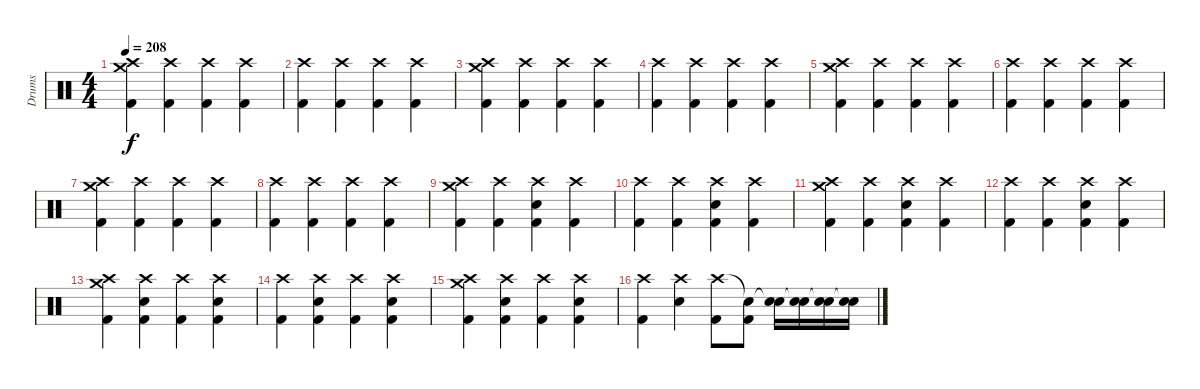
\track ("Drums" "Drums") {instrument percussion}
\staff {score}
\articulation defaults
\ts (4 4)
\tempo 208
\clef neutral
\ks c
("Crash high (hit)" "Crash medium (hit)" "Kick (hit) 2").4{dy f} ("Crash high (hit)" "Kick (hit) 2").4 ("Crash high (hit)" "Kick (hit) 2").4 ("Crash high (hit)" "Kick (hit) 2").4 |
("Crash high (hit)" "Kick (hit) 2").4 ("Crash high (hit)" "Kick (hit) 2").4 ("Crash high (hit)" "Kick (hit) 2").4 ("Crash high (hit)" "Kick (hit) 2").4 |
("Crash high (hit)" "Crash medium (hit)" "Kick (hit) 2").4 ("Crash high (hit)" "Kick (hit) 2").4 ("Crash high (hit)" "Kick (hit) 2").4 ("Crash high (hit)" "Kick (hit) 2").4 |
("Crash high (hit)" "Kick (hit) 2").4 ("Crash high (hit)" "Kick (hit) 2").4 ("Crash high (hit)" "Kick (hit) 2").4 ("Crash high (hit)" "Kick (hit) 2").4 |
("Crash high (hit)" "Crash medium (hit)" "Kick (hit) 2").4 ("Crash high (hit)" "Kick (hit) 2").4 ("Crash high (hit)" "Kick (hit) 2").4 ("Crash high (hit)" "Kick (hit) 2").4 |
("Crash high (hit)" "Kick (hit) 2").4 ("Crash high (hit)" "Kick (hit) 2").4 ("Crash high (hit)" "Kick (hit) 2").4 ("Crash high (hit)" "Kick (hit) 2").4 |
("Crash high (hit)" "Crash medium (hit)" "Kick (hit) 2").4 ("Crash high (hit)" "Kick (hit) 2").4 ("Crash high (hit)" "Kick (hit) 2").4 ("Crash high (hit)" "Kick (hit) 2").4 |
("Crash high (hit)" "Kick (hit) 2").4 ("Crash high (hit)" "Kick (hit) 2").4 ("Crash high (hit)" "Kick (hit) 2").4 ("Crash high (hit)" "Kick (hit) 2").4 |
("Crash high (hit)" "Crash medium (hit)" "Kick (hit) 2").4 ("Crash high (hit)" "Kick (hit) 2").4 ("Crash high (hit)" "Electric Snare (hit)" "Kick (hit) 2").4 ("Crash high (hit)" "Kick (hit) 2").4 |
("Crash high (hit)" "Kick (hit) 2").4 ("Crash high (hit)" "Kick (hit) 2").4 ("Crash high (hit)" "Electric Snare (hit)" "Kick (hit) 2").4 ("Crash high (hit)" "Kick (hit) 2").4 |
("Crash high (hit)" "Crash medium (hit)" "Kick (hit) 2").4 ("Crash high (hit)" "Kick (hit) 2").4 ("Crash high (hit)" "Electric Snare (hit)" "Kick (hit) 2").4 ("Crash high (hit)" "Kick (hit) 2").4 |
("Crash high (hit)" "Kick (hit) 2").4 ("Crash high (hit)" "Kick (hit) 2").4 ("Crash high (hit)" "Electric Snare (hit)" "Kick (hit) 2").4 ("Crash high (hit)" "Kick (hit) 2").4 |
("Crash high (hit)" "Crash medium (hit)" "Kick (hit) 2").4 ("Crash high (hit)" "Electric Snare (hit)" "Kick (hit) 2").4 ("Crash high (hit)" "Kick (hit) 2").4 ("Crash high (hit)" "Electric Snare (hit)" "Kick (hit) 2").4 |
("Crash high (hit)" "Kick (hit) 2").4 ("Crash high (hit)" "Electric Snare (hit)" "Kick (hit) 2").4 ("Crash high (hit)" "Kick (hit) 2").4 ("Crash high (hit)" "Electric Snare (hit)" "Kick (hit) 2").4 |
("Crash high (hit)" "Crash medium (hit)" "Kick (hit) 2").4 ("Crash high (hit)" "Electric Snare (hit)" "Kick (hit) 2").4 ("Crash high (hit)" "Kick (hit) 2").4 ("Crash high (hit)" "Electric Snare (hit)" "Kick (hit) 2").4 |
("Crash high (hit)" "Kick (hit) 2").4 ("Crash high (hit)" "Electric Snare (hit)").4 ("Crash high (hit)" "Kick (hit) 2").8 ("Snare (hit)"{t} "Kick (hit) 2").8 ("Snare (hit)"{t} "Electric Snare (hit)").16 ("Snare (hit)"{t} "Electric Snare (hit)").16 ("Snare (hit)"{t} "Electric Snare (hit)").16 ("Snare (hit)"{t} "Electric Snare (hit)").16
